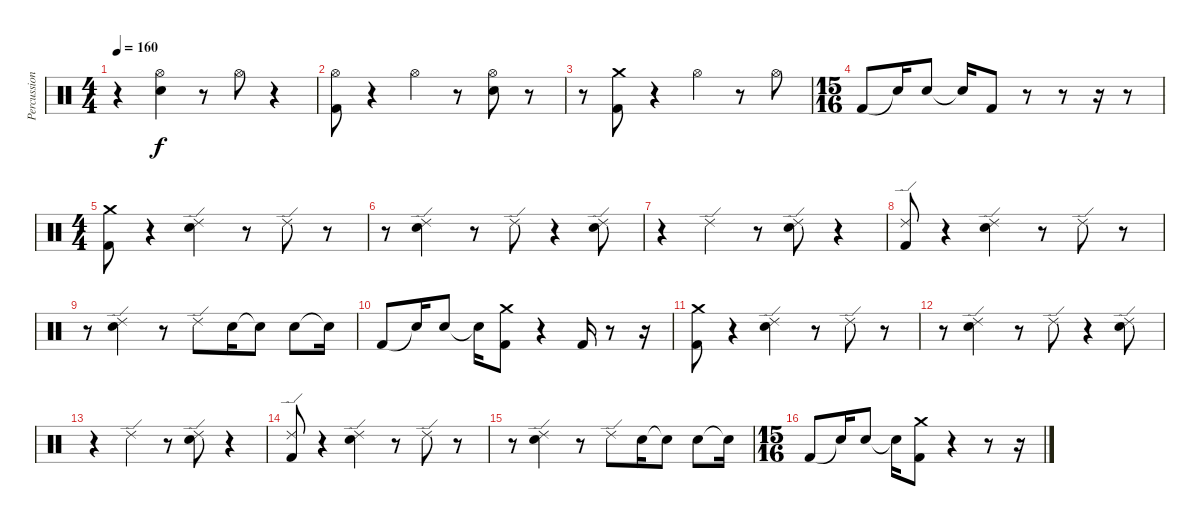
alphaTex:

\track ("Percussion" "Percussion") {instrument percussion}
\staff {score}
\articulation defaults
\ts (4 4)
\tempo 160
\clef neutral
\ks c
r.4{dy f} ("Hi-Hat (open)" "Electric Snare (hit)").4 r.8 "Hi-Hat (open)".8 r.4 |
("Hi-Hat (open)" "Kick (hit) 2").8 r.4 "Hi-Hat (open)".4 r.8 ("Hi-Hat (open)" "Electric Snare (hit)").8 r.8 |
r.8 ("Crash medium (hit)" "Kick (hit) 2").8 r.4 "Hi-Hat (open)".4 r.8 "Hi-Hat (open)".8 |
\ts (15 16)
"Kick (hit) 2".8 "Electric Snare (hit)"{t}.16 "Electric Snare (hit)".8 "Snare (hit)"{t}.16 "Kick (hit) 2".8 r.8 r.8 r.16 r.8 |
\ts (4 4)
("Crash medium (hit)" "Kick (hit) 2").8 r.4 ("Ride (edge) 2" "Electric Snare (hit)").4 r.8 "Ride (edge) 2".8 r.8 |
r.8 ("Ride (edge) 2" "Electric Snare (hit)").4 r.8 "Ride (edge) 2".8 r.4 ("Ride (edge) 2" "Electric Snare (hit)").8 |
r.4 "Ride (edge) 2".4 r.8 ("Ride (edge) 2" "Electric Snare (hit)").8 r.4 |
("Ride (edge) 2" "Kick (hit) 2").8 r.4 ("Ride (edge) 2" "Electric Snare (hit)").4 r.8 "Ride (edge) 2".8 r.8 |
r.8 ("Ride (edge) 2" "Electric Snare (hit)").4 r.8 "Ride (edge) 2".8 "Electric Snare (hit)".16 "Electric Snare (hit)"{t}.8 "Electric Snare (hit)".8 "Snare (hit)"{t}.16 |
"Kick (hit) 2".8 "Snare (hit)"{t}.16 "Electric Snare (hit)".8 "Snare (hit)"{t}.16 ("Crash medium (hit)" "Kick (hit) 2").8 r.4 "Kick (hit) 2".16 r.8 r.16 |
("Crash medium (hit)" "Kick (hit) 2").8 r.4 ("Ride (edge) 2" "Electric Snare (hit)").4 r.8 "Ride (edge) 2".8 r.8 |
r.8 ("Ride (edge) 2" "Electric Snare (hit)").4 r.8 "Ride (edge) 2".8 r.4 ("Ride (edge) 2" "Electric Snare (hit)").8 |
r.4 "Ride (edge) 2".4 r.8 ("Ride (edge) 2" "Electric Snare (hit)").8 r.4 |
("Ride (edge) 2" "Kick (hit) 2").8 r.4 ("Ride (edge) 2" "Electric Snare (hit)").4 r.8 "Ride (edge) 2".8 r.8 |
r.8 ("Ride (edge) 2" "Electric Snare (hit)").4 r.8 "Ride (edge) 2".8 "Electric Snare (hit)".16 "Electric Snare (hit)"{t}.8 "Electric Snare (hit)".8 "Snare (hit)"{t}.16 |
\ts (15 16)
"Kick (hit) 2".8 "Snare (hit)"{t}.16 "Electric Snare (hit)".8 "Snare (hit)"{t}.16 ("Crash medium (hit)" "Kick (hit) 2").8 r.4 r.8 r.16
